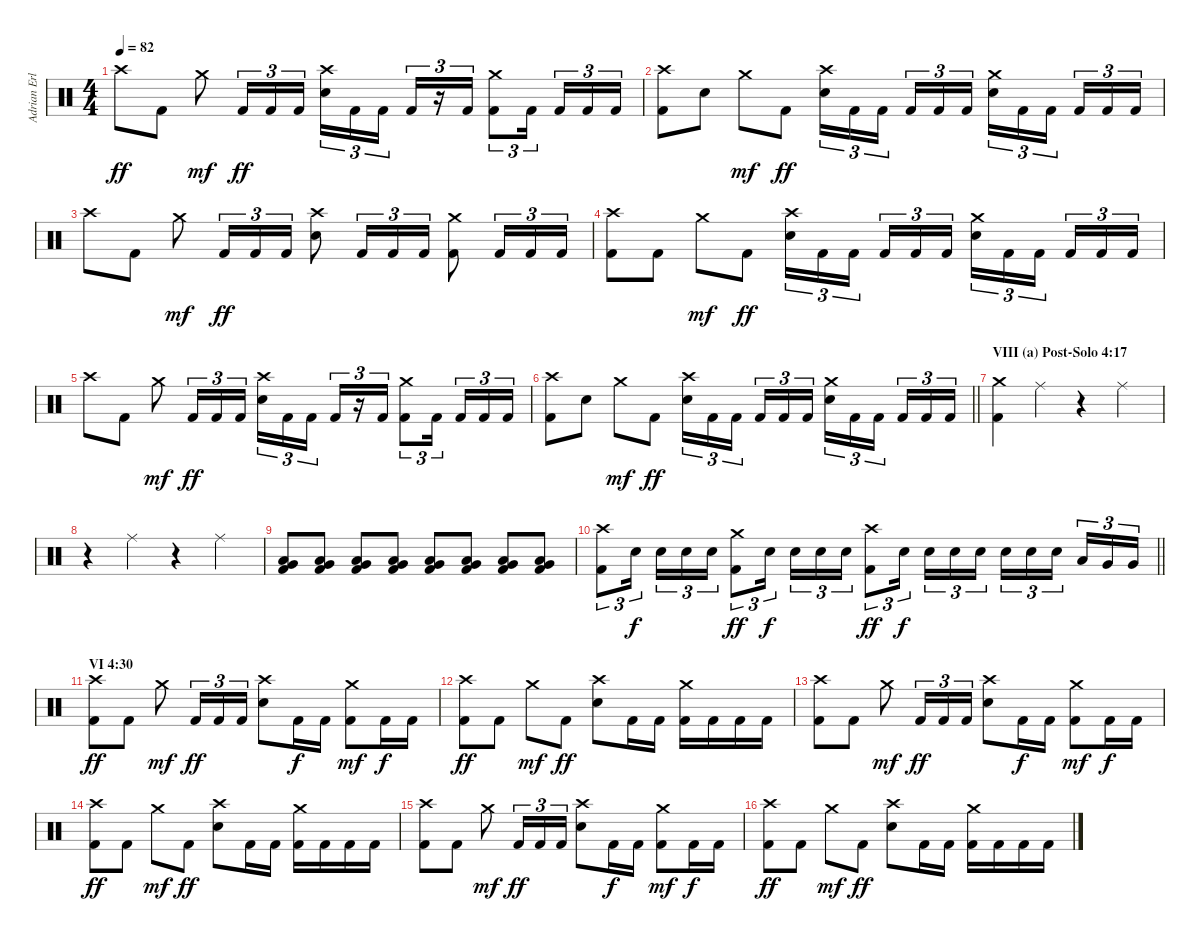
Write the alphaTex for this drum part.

\track ("Adrian Erlandsson (drums)" "Adrian Erl") {instrument percussion}
\staff {score}
\articulation defaults
\ts (4 4)
\tempo 82
\clef neutral
\ks c "Crash high (hit)".8{dy ff} "Kick (hit) 2".8 "Crash medium (hit)".8{dy mf} "Kick (hit) 2".16{tu (3 2) dy ff} "Kick (hit) 2".16{tu (3 2)} "Kick (hit) 2".16{tu (3 2)}
("Crash high (hit)" "Electric Snare (hit)").16{tu (3 2)} "Kick (hit) 2".16{tu (3 2)} "Kick (hit) 2".16{tu (3 2) beam splitsecondary} "Kick (hit) 2".16{tu (3 2)} r.16{tu (3 2)} "Kick (hit) 2".16{tu (3 2)} ("Crash medium (hit)" "Kick (hit) 2").8{tu (3 2)} "Kick (hit) 2".16{tu (3 2) beam splitsecondary} "Kick (hit) 2".16{tu (3 2)} "Kick (hit) 2".16{tu (3 2)} "Kick (hit) 2".16{tu (3 2)} |
("Crash high (hit)" "Kick (hit) 2").8 "Electric Snare (hit)".8 "Crash medium (hit)".8{dy mf} "Kick (hit) 2".8{dy ff} ("Crash high (hit)" "Electric Snare (hit)").16{tu (3 2)} "Kick (hit) 2".16{tu (3 2)} "Kick (hit) 2".16{tu (3 2) beam splitsecondary} "Kick (hit) 2".16{tu (3 2)} "Kick (hit) 2".16{tu (3 2)} "Kick (hit) 2".16{tu (3 2)} ("Crash medium (hit)" "Electric Snare (hit)").16{tu (3 2)} "Kick (hit) 2".16{tu (3 2)} "Kick (hit) 2".16{tu (3 2) beam splitsecondary} "Kick (hit) 2".16{tu (3 2)} "Kick (hit) 2".16{tu (3 2)} "Kick (hit) 2".16{tu (3 2)} |
"Crash high (hit)".8 "Kick (hit) 2".8 "Crash medium (hit)".8{dy mf} "Kick (hit) 2".16{tu (3 2) dy ff} "Kick (hit) 2".16{tu (3 2)} "Kick (hit) 2".16{tu (3 2)} ("Crash high (hit)" "Electric Snare (hit)").8 "Kick (hit) 2".16{tu (3 2)} "Kick (hit) 2".16{tu (3 2)} "Kick (hit) 2".16{tu (3 2)} ("Crash medium (hit)" "Kick (hit) 2").8 "Kick (hit) 2".16{tu (3 2)} "Kick (hit) 2".16{tu (3 2)} "Kick (hit) 2".16{tu (3 2)} |
("Crash high (hit)" "Kick (hit) 2").8 "Kick (hit) 2".8 "Crash medium (hit)".8{dy mf} "Kick (hit) 2".8{dy ff} ("Crash high (hit)" "Electric Snare (hit)").16{tu (3 2)} "Kick (hit) 2".16{tu (3 2)} "Kick (hit) 2".16{tu (3 2) beam splitsecondary} "Kick (hit) 2".16{tu (3 2)} "Kick (hit) 2".16{tu (3 2)} "Kick (hit) 2".16{tu (3 2)} ("Crash medium (hit)" "Electric Snare (hit)").16{tu (3 2)} "Kick (hit) 2".16{tu (3 2)} "Kick (hit) 2".16{tu (3 2) beam splitsecondary} "Kick (hit) 2".16{tu (3 2)} "Kick (hit) 2".16{tu (3 2)} "Kick (hit) 2".16{tu (3 2)} |
"Crash high (hit)".8 "Kick (hit) 2".8 "Crash medium (hit)".8{dy mf} "Kick (hit) 2".16{tu (3 2) dy ff} "Kick (hit) 2".16{tu (3 2)} "Kick (hit) 2".16{tu (3 2)} ("Crash high (hit)" "Electric Snare (hit)").16{tu (3 2)} "Kick (hit) 2".16{tu (3 2)} "Kick (hit) 2".16{tu (3 2) beam splitsecondary} "Kick (hit) 2".16{tu (3 2)} r.16{tu (3 2)} "Kick (hit) 2".16{tu (3 2)} ("Crash medium (hit)" "Kick (hit) 2").8{tu (3 2)} "Kick (hit) 2".16{tu (3 2) beam splitsecondary} "Kick (hit) 2".16{tu (3 2)} "Kick (hit) 2".16{tu (3 2)} "Kick (hit) 2".16{tu (3 2)} |
\barLineRight lightlight
("Crash high (hit)" "Kick (hit) 2").8 "Electric Snare (hit)".8 "Crash medium (hit)".8{dy mf} "Kick (hit) 2".8{dy ff} ("Crash high (hit)" "Electric Snare (hit)").16{tu (3 2)} "Kick (hit) 2".16{tu (3 2)} "Kick (hit) 2".16{tu (3 2) beam splitsecondary} "Kick (hit) 2".16{tu (3 2)} "Kick (hit) 2".16{tu (3 2)} "Kick (hit) 2".16{tu (3 2)} ("Crash medium (hit)" "Electric Snare (hit)").16{tu (3 2)} "Kick (hit) 2".16{tu (3 2)} "Kick (hit) 2".16{tu (3 2) beam splitsecondary} "Kick (hit) 2".16{tu (3 2)} "Kick (hit) 2".16{tu (3 2)} "Kick (hit) 2".16{tu (3 2)} |
\section ("" "VIII (a) Post-Solo 4:17")
("Crash medium (hit)" "Kick (hit) 2").4 "Ride (middle)".4 r.4 "Ride (middle)".4 |
r.4 "Ride (middle)".4 r.4 "Ride (middle)".4 |
("Low Tom (hit)" "Very Low Tom (hit)" "Kick (hit) 2").8 ("Low Tom (hit)" "Very Low Tom (hit)" "Kick (hit) 2").8 ("Low Tom (hit)" "Very Low Tom (hit)" "Kick (hit) 2").8 ("Low Tom (hit)" "Very Low Tom (hit)" "Kick (hit) 2").8 ("Low Tom (hit)" "Very Low Tom (hit)" "Kick (hit) 2").8 ("Low Tom (hit)" "Very Low Tom (hit)" "Kick (hit) 2").8 ("Low Tom (hit)" "Very Low Tom (hit)" "Kick (hit) 2").8 ("Low Tom (hit)" "Very Low Tom (hit)" "Kick (hit) 2").8 |
\barLineRight lightlight
("Crash high (hit)" "Kick (hit) 2").8{tu (3 2)} "Electric Snare (hit)".16{tu (3 2) dy f beam splitsecondary} "Electric Snare (hit)".16{tu (3 2)} "Electric Snare (hit)".16{tu (3 2)} "Electric Snare (hit)".16{tu (3 2)} ("Crash medium (hit)" "Kick (hit) 2").8{tu (3 2) dy ff} "Electric Snare (hit)".16{tu (3 2) dy f beam splitsecondary} "Electric Snare (hit)".16{tu (3 2)} "Electric Snare (hit)".16{tu (3 2)} "Electric Snare (hit)".16{tu (3 2)} ("Crash high (hit)" "Kick (hit) 2").8{tu (3 2) dy ff} "Electric Snare (hit)".16{tu (3 2) dy f beam splitsecondary} "Electric Snare (hit)".16{tu (3 2)} "Electric Snare (hit)".16{tu (3 2)} "Electric Snare (hit)".16{tu (3 2)} "Electric Snare (hit)".16{tu (3 2)} "Electric Snare (hit)".16{tu (3 2)} "Electric Snare (hit)".16{tu (3 2) beam splitsecondary} "Low Tom (hit)".16{tu (3 2)} "Very Low Tom (hit)".16{tu (3 2)} "Very Low Tom (hit)".16{tu (3 2)} |
\section ("" "VI 4:30")
("Crash high (hit)" "Kick (hit) 2").8{dy ff} "Kick (hit) 2".8 "Crash medium (hit)".8{dy mf} "Kick (hit) 2".16{tu (3 2) dy ff} "Kick (hit) 2".16{tu (3 2)} "Kick (hit) 2".16{tu (3 2)} ("Crash high (hit)" "Electric Snare (hit)").8 "Kick (hit) 2".16{dy f} "Kick (hit) 2".16 ("Crash medium (hit)" "Kick (hit) 2").8{dy mf} "Kick (hit) 2".16{dy f} "Kick (hit) 2".16 |
("Crash high (hit)" "Kick (hit) 2").8{dy ff} "Kick (hit) 2".8 "Crash medium (hit)".8{dy mf} "Kick (hit) 2".8{dy ff} ("Crash high (hit)" "Electric Snare (hit)").8 "Kick (hit) 2".16 "Kick (hit) 2".16 ("Crash medium (hit)" "Kick (hit) 2").16 "Kick (hit) 2".16 "Kick (hit) 2".16 "Kick (hit) 2".16 |
("Crash high (hit)" "Kick (hit) 2").8 "Kick (hit) 2".8 "Crash medium (hit)".8{dy mf} "Kick (hit) 2".16{tu (3 2) dy ff} "Kick (hit) 2".16{tu (3 2)} "Kick (hit) 2".16{tu (3 2)} ("Crash high (hit)" "Electric Snare (hit)").8 "Kick (hit) 2".16{dy f} "Kick (hit) 2".16 ("Crash medium (hit)" "Kick (hit) 2").8{dy mf} "Kick (hit) 2".16{dy f} "Kick (hit) 2".16 |
("Crash high (hit)" "Kick (hit) 2").8{dy ff} "Kick (hit) 2".8 "Crash medium (hit)".8{dy mf} "Kick (hit) 2".8{dy ff} ("Crash high (hit)" "Electric Snare (hit)").8 "Kick (hit) 2".16 "Kick (hit) 2".16 ("Crash medium (hit)" "Kick (hit) 2").16 "Kick (hit) 2".16 "Kick (hit) 2".16 "Kick (hit) 2".16 |
("Crash high (hit)" "Kick (hit) 2").8 "Kick (hit) 2".8 "Crash medium (hit)".8{dy mf} "Kick (hit) 2".16{tu (3 2) dy ff} "Kick (hit) 2".16{tu (3 2)} "Kick (hit) 2".16{tu (3 2)} ("Crash high (hit)" "Electric Snare (hit)").8 "Kick (hit) 2".16{dy f} "Kick (hit) 2".16 ("Crash medium (hit)" "Kick (hit) 2").8{dy mf} "Kick (hit) 2".16{dy f} "Kick (hit) 2".16 |
("Crash high (hit)" "Kick (hit) 2").8{dy ff} "Kick (hit) 2".8 "Crash medium (hit)".8{dy mf} "Kick (hit) 2".8{dy ff} ("Crash high (hit)" "Electric Snare (hit)").8 "Kick (hit) 2".16 "Kick (hit) 2".16 ("Crash medium (hit)" "Kick (hit) 2").16 "Kick (hit) 2".16 "Kick (hit) 2".16 "Kick (hit) 2".16
